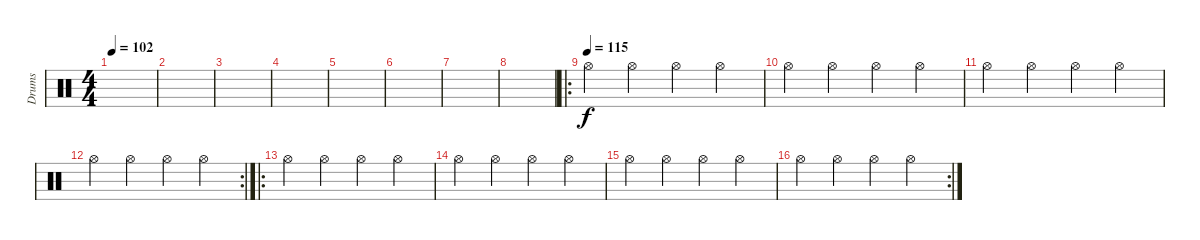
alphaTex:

\track ("Drums" "Drums") {instrument percussion}
\staff {score}
\articulation defaults
\ts (4 4)
\tempo 102
\clef neutral
\ks c
|
|
|
|
|
|
|
|
\ro
\tempo (115)
"Hi-Hat (open)".4 "Hi-Hat (open)".4 "Hi-Hat (open)".4 "Hi-Hat (open)".4 |
"Hi-Hat (open)".4 "Hi-Hat (open)".4 "Hi-Hat (open)".4 "Hi-Hat (open)".4 |
"Hi-Hat (open)".4 "Hi-Hat (open)".4 "Hi-Hat (open)".4 "Hi-Hat (open)".4 |
\rc 2 "Hi-Hat (open)".4 "Hi-Hat (open)".4 "Hi-Hat (open)".4 "Hi-Hat (open)".4
|
\ro "Hi-Hat (open)".4 "Hi-Hat (open)".4 "Hi-Hat (open)".4 "Hi-Hat (open)".4
|
"Hi-Hat (open)".4 "Hi-Hat (open)".4 "Hi-Hat (open)".4 "Hi-Hat (open)".4 |
"Hi-Hat (open)".4 "Hi-Hat (open)".4 "Hi-Hat (open)".4 "Hi-Hat (open)".4 |
\rc 2 "Hi-Hat (open)".4 "Hi-Hat (open)".4 "Hi-Hat (open)".4 "Hi-Hat (open)".4
